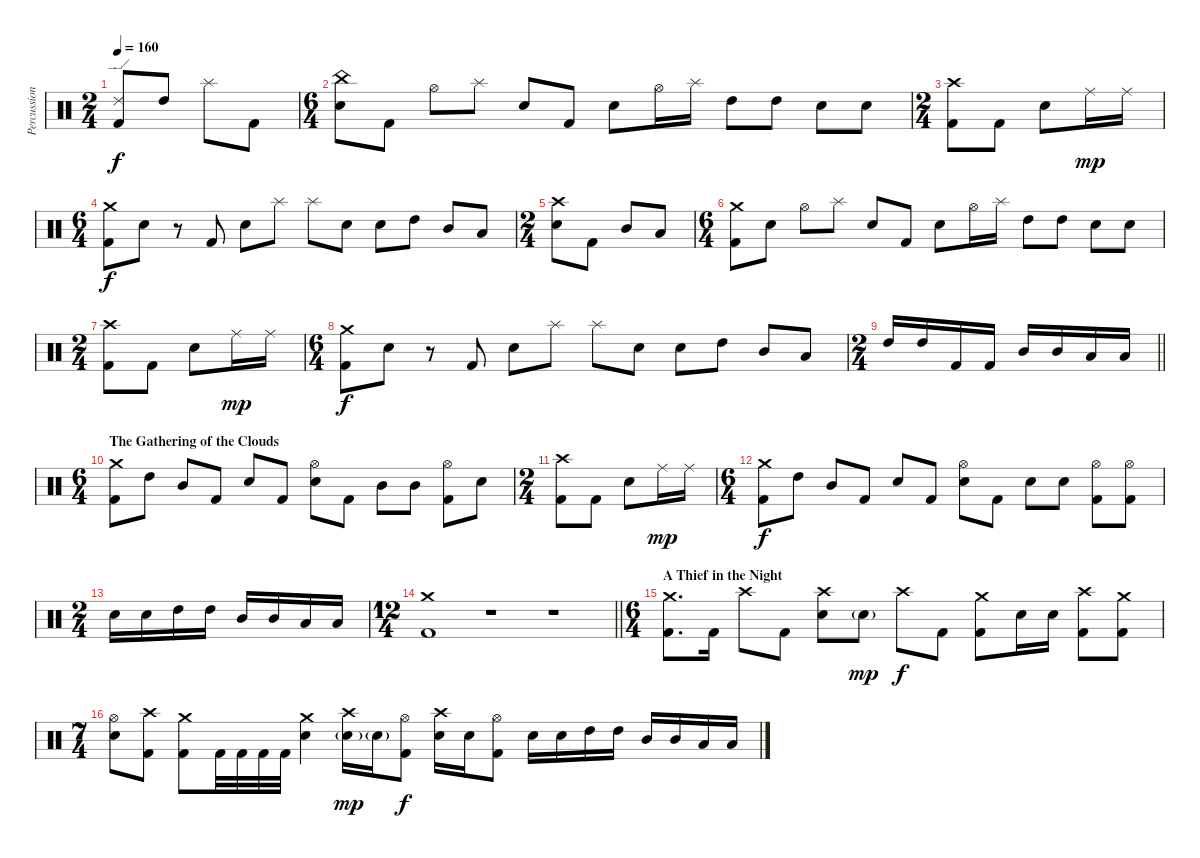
\track ("Percussion" "Percussion") {instrument percussion}
\staff {score}
\articulation defaults
\ts (2 4)
\tempo 160
\clef neutral
\ks c
("Ride (edge) 2" "Kick (hit) 2").8{dy f} "High Tom (hit)".8 "Splash (hit)".8 "Kick (hit) 2".8 |
\ts (6 4)
("China (hit)" "Electric Snare (hit)").8 "Kick (hit) 2".8 "Hi-Hat (open)".8 "Splash (hit)".8 "Electric Snare (hit)".8 "Kick (hit) 2".8 "Electric Snare (hit)".8 "Hi-Hat (open)".16 "Splash (hit)".16 "High Tom (hit)".8 "High Tom (hit)".8 "Electric Snare (hit)".8 "Electric Snare (hit)".8 |
\ts (2 4)
("Crash high (hit)" "Kick (hit) 2").8 "Kick (hit) 2".8 "Electric Snare (hit)".8 "Ride (middle)".16{dy mp} "Ride (middle)".16 |
\ts (6 4)
("Crash medium (hit)" "Kick (hit) 2").8{dy f} "Electric Snare (hit)".8 r.8 "Kick (hit) 2".8 "Electric Snare (hit)".8 "Splash (hit)".8 "Splash (hit)".8 "Electric Snare (hit)".8 "Electric Snare (hit)".8 "High Tom (hit)".8 "Mid Tom (hit)".8 "Low Tom (hit)".8 |
\ts (2 4)
("Crash high (hit)" "Electric Snare (hit)").8 "Kick (hit) 2".8 "Mid Tom (hit)".8 "Low Tom (hit)".8 |
\ts (6 4)
("Crash medium (hit)" "Kick (hit) 2").8 "Electric Snare (hit)".8 "Hi-Hat (open)".8 "Splash (hit)".8 "Electric Snare (hit)".8 "Kick (hit) 2".8 "Electric Snare (hit)".8 "Hi-Hat (open)".16 "Splash (hit)".16 "High Tom (hit)".8 "High Tom (hit)".8 "Electric Snare (hit)".8 "Electric Snare (hit)".8 |
\ts (2 4)
("Crash high (hit)" "Kick (hit) 2").8 "Kick (hit) 2".8 "Electric Snare (hit)".8 "Ride (middle)".16{dy mp} "Ride (middle)".16 |
\ts (6 4)
("Crash medium (hit)" "Kick (hit) 2").8{dy f} "Electric Snare (hit)".8 r.8 "Kick (hit) 2".8 "Electric Snare (hit)".8 "Splash (hit)".8 "Splash (hit)".8 "Electric Snare (hit)".8 "Electric Snare (hit)".8 "High Tom (hit)".8 "Mid Tom (hit)".8 "Low Tom (hit)".8 |
\ts (2 4)
\barLineRight lightlight "High Tom (hit)".16 "High Tom (hit)".16 "Kick (hit) 2".16 "Kick (hit) 2".16 "Mid Tom (hit)".16 "Mid Tom (hit)".16 "Low Tom (hit)".16 "Low Tom (hit)".16
|
\ts (6 4)
\section ("" "The Gathering of the Clouds")
("Crash medium (hit)" "Kick (hit) 2").8 "High Tom (hit)".8 "Mid Tom (hit)".8 "Kick (hit) 2".8 "Electric Snare (hit)".8 "Kick (hit) 2".8 ("Hi-Hat (open)" "Electric Snare (hit)").8 "Kick (hit) 2".8 "Mid Tom (hit)".8 "Mid Tom (hit)".8 ("Hi-Hat (open)" "Kick (hit) 2").8 "Electric Snare (hit)".8 |
\ts (2 4)
("Crash high (hit)" "Kick (hit) 2").8 "Kick (hit) 2".8 "Electric Snare (hit)".8 "Ride (middle)".16{dy mp} "Ride (middle)".16 |
\ts (6 4)
("Crash medium (hit)" "Kick (hit) 2").8{dy f} "High Tom (hit)".8 "Mid Tom (hit)".8 "Kick (hit) 2".8 "Electric Snare (hit)".8 "Kick (hit) 2".8 ("Hi-Hat (open)" "Electric Snare (hit)").8 "Kick (hit) 2".8 "Electric Snare (hit)".8 "Electric Snare (hit)".8 ("Hi-Hat (open)" "Kick (hit) 2").8 ("Hi-Hat (open)" "Kick (hit) 2").8 |
\ts (2 4)
"Electric Snare (hit)".16 "Electric Snare (hit)".16 "High Tom (hit)".16 "High Tom (hit)".16 "Mid Tom (hit)".16 "Mid Tom (hit)".16 "Low Tom (hit)".16 "Low Tom (hit)".16 |
\ts (12 4)
\barLineRight lightlight
("Crash medium (hit)" "Kick (hit) 2").1 r.1 r.1 |
\ts (6 4)
\section ("" "A Thief in the Night")
("Crash medium (hit)" "Kick (hit) 2").8{d} "Kick (hit) 2".16 "Crash high (hit)".8 "Kick (hit) 2".8 ("Crash high (hit)" "Electric Snare (hit)").8 "Electric Snare (hit)"{g}.8{dy mp} "Crash high (hit)".8{dy f} "Kick (hit) 2".8 ("Crash medium (hit)" "Kick (hit) 2").8 "Electric Snare (hit)".16 "Electric Snare (hit)".16 ("Kick (hit) 2" "Crash high (hit)").8 ("Kick (hit) 2" "Crash medium (hit)").8 |
\ts (7 4)
("Electric Snare (hit)" "Hi-Hat (open)").8 ("Kick (hit) 2" "Crash high (hit)").8 ("Kick (hit) 2" "Crash medium (hit)").8 "Kick (hit) 2".32 "Kick (hit) 2".32 "Kick (hit) 2".32 "Kick (hit) 2".32 ("Crash medium (hit)" "Electric Snare (hit)").4 ("Crash high (hit)" "Electric Snare (hit)"{g}).16{dy mp} "Electric Snare (hit)"{g}.16 ("Hi-Hat (open)" "Kick (hit) 2").8{dy f} ("Crash high (hit)" "Electric Snare (hit)").16 "Electric Snare (hit)".16 ("Kick (hit) 2" "Hi-Hat (open)").8 "Electric Snare (hit)".16 "Electric Snare (hit)".16 "High Tom (hit)".16 "High Tom (hit)".16 "Mid Tom (hit)".16 "Mid Tom (hit)".16 "Low Tom (hit)".16 "Low Tom (hit)".16
